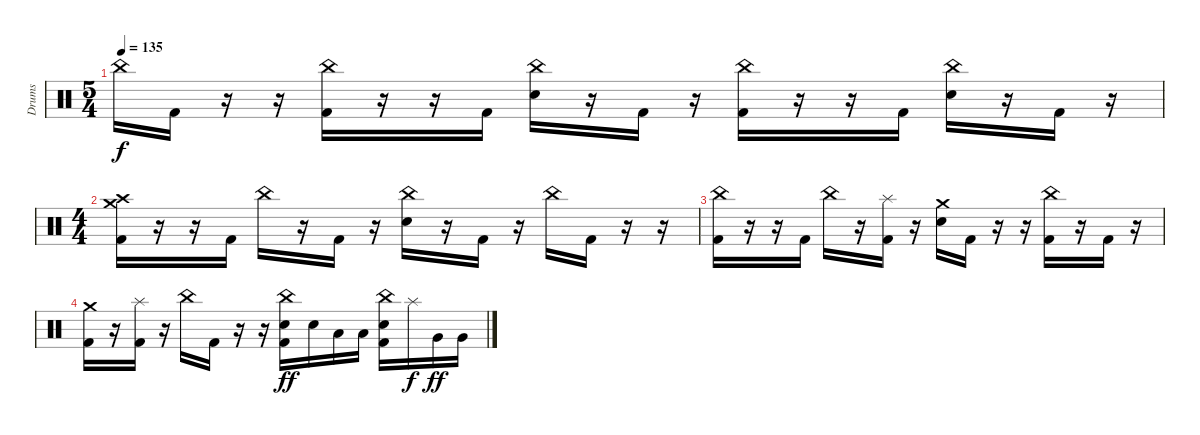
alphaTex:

\track ("Drums" "Drums") {instrument percussion}
\staff {score}
\articulation defaults
\ts (5 4)
\tempo 135
\clef neutral
\ks c "China (hit)".16{dy f} "Kick (hit) 2".16
r.16 r.16 ("China (hit)" "Kick (hit) 2").16 r.16 r.16 "Kick (hit) 2".16 ("China (hit)" "Snare (hit) 2").16 r.16 "Kick (hit) 2".16 r.16 ("China (hit)" "Kick (hit) 2").16 r.16 r.16 "Kick (hit) 2".16 ("China (hit)" "Snare (hit) 2").16 r.16 "Kick (hit) 2".16 r.16 |
\ts (4 4)
("Crash high (hit)" "Crash medium (hit)" "Kick (hit) 2").16 r.16 r.16 "Kick (hit) 2".16 "China (hit)".16 r.16 "Kick (hit) 2".16 r.16 ("China (hit)" "Snare (hit) 2").16 r.16 "Kick (hit) 2".16 r.16 "China (hit)".16 "Kick (hit) 2".16 r.16 r.16 |
("China (hit)" "Kick (hit) 2").16 r.16 r.16 "Kick (hit) 2".16 "China (hit)".16 r.16 ("Splash (hit)" "Kick (hit) 2").16 r.16 ("Crash medium (hit)" "Snare (hit) 2").16 "Kick (hit) 2".16 r.16 r.16 ("China (hit)" "Kick (hit) 2").16 r.16 "Kick (hit) 2".16 r.16 |
("Crash medium (hit)" "Kick (hit) 2").16 r.16 ("Splash (hit)" "Kick (hit) 2").16 r.16 "China (hit)".16 "Kick (hit) 2".16 r.16 r.16 ("China (hit)" "Electric Snare (hit)" "Kick (hit) 2").16{dy ff} "Electric Snare (hit)".16 "Low Tom (hit)".16 "Low Tom (hit)".16 ("China (hit)" "Electric Snare (hit)" "Kick (hit) 2").16 "Splash (hit)".16{dy f} "Very Low Tom (hit)".16{dy ff} "Very Low Tom (hit)".16
